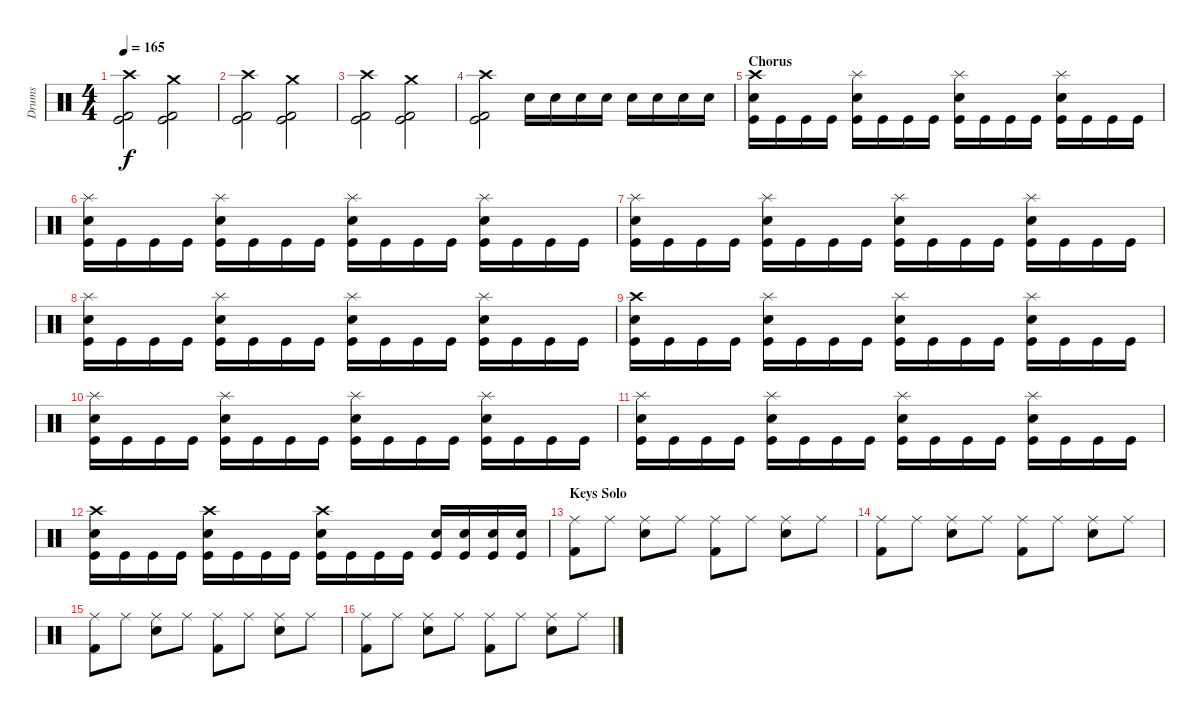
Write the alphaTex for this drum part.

\track ("Drums" "Drums") {instrument percussion}
\staff {score}
\articulation defaults
\ts (4 4)
\tempo 165
\clef neutral
\ks c
("Crash high (hit)" "Kick (hit)" "Kick (hit) 2").2{dy f} ("Crash medium (hit)" "Kick (hit)" "Kick (hit) 2").2 |
("Crash high (hit)" "Kick (hit)" "Kick (hit) 2").2 ("Crash medium (hit)" "Kick (hit)" "Kick (hit) 2").2 |
("Crash high (hit)" "Kick (hit)" "Kick (hit) 2").2 ("Crash medium (hit)" "Kick (hit)" "Kick (hit) 2").2 |
("Crash high (hit)" "Kick (hit)" "Kick (hit) 2").2 "Electric Snare (hit)".16{volume 10} "Electric Snare (hit)".16{volume 11} "Electric Snare (hit)".16{volume 13} "Electric Snare (hit)".16{volume 14} "Electric Snare (hit)".16 "Electric Snare (hit)".16 "Electric Snare (hit)".16 "Electric Snare (hit)".16 |
\section ("" "Chorus")
("Crash high (hit)" "Electric Snare (hit)" "Kick (hit)").16 "Kick (hit)".16 "Kick (hit)".16 "Kick (hit)".16 ("Splash (hit)" "Electric Snare (hit)" "Kick (hit)").16 "Kick (hit)".16 "Kick (hit)".16 "Kick (hit)".16 ("Splash (hit)" "Electric Snare (hit)" "Kick (hit)").16 "Kick (hit)".16 "Kick (hit)".16 "Kick (hit)".16 ("Splash (hit)" "Electric Snare (hit)" "Kick (hit)").16 "Kick (hit)".16 "Kick (hit)".16 "Kick (hit)".16 |
("Splash (hit)" "Electric Snare (hit)" "Kick (hit)").16 "Kick (hit)".16 "Kick (hit)".16 "Kick (hit)".16 ("Splash (hit)" "Electric Snare (hit)" "Kick (hit)").16 "Kick (hit)".16 "Kick (hit)".16 "Kick (hit)".16 ("Splash (hit)" "Electric Snare (hit)" "Kick (hit)").16 "Kick (hit)".16 "Kick (hit)".16 "Kick (hit)".16 ("Splash (hit)" "Electric Snare (hit)" "Kick (hit)").16 "Kick (hit)".16 "Kick (hit)".16 "Kick (hit)".16 |
("Splash (hit)" "Electric Snare (hit)" "Kick (hit)").16 "Kick (hit)".16 "Kick (hit)".16 "Kick (hit)".16 ("Splash (hit)" "Electric Snare (hit)" "Kick (hit)").16 "Kick (hit)".16 "Kick (hit)".16 "Kick (hit)".16 ("Splash (hit)" "Electric Snare (hit)" "Kick (hit)").16 "Kick (hit)".16 "Kick (hit)".16 "Kick (hit)".16 ("Splash (hit)" "Electric Snare (hit)" "Kick (hit)").16 "Kick (hit)".16 "Kick (hit)".16 "Kick (hit)".16 |
("Splash (hit)" "Electric Snare (hit)" "Kick (hit)").16 "Kick (hit)".16 "Kick (hit)".16 "Kick (hit)".16 ("Splash (hit)" "Electric Snare (hit)" "Kick (hit)").16 "Kick (hit)".16 "Kick (hit)".16 "Kick (hit)".16 ("Splash (hit)" "Electric Snare (hit)" "Kick (hit)").16 "Kick (hit)".16 "Kick (hit)".16 "Kick (hit)".16 ("Splash (hit)" "Electric Snare (hit)" "Kick (hit)").16 "Kick (hit)".16 "Kick (hit)".16 "Kick (hit)".16 |
("Crash high (hit)" "Electric Snare (hit)" "Kick (hit)").16 "Kick (hit)".16 "Kick (hit)".16 "Kick (hit)".16 ("Splash (hit)" "Electric Snare (hit)" "Kick (hit)").16 "Kick (hit)".16 "Kick (hit)".16 "Kick (hit)".16 ("Splash (hit)" "Electric Snare (hit)" "Kick (hit)").16 "Kick (hit)".16 "Kick (hit)".16 "Kick (hit)".16 ("Splash (hit)" "Electric Snare (hit)" "Kick (hit)").16 "Kick (hit)".16 "Kick (hit)".16 "Kick (hit)".16 |
("Splash (hit)" "Electric Snare (hit)" "Kick (hit)").16 "Kick (hit)".16 "Kick (hit)".16 "Kick (hit)".16 ("Splash (hit)" "Electric Snare (hit)" "Kick (hit)").16 "Kick (hit)".16 "Kick (hit)".16 "Kick (hit)".16 ("Splash (hit)" "Electric Snare (hit)" "Kick (hit)").16 "Kick (hit)".16 "Kick (hit)".16 "Kick (hit)".16 ("Splash (hit)" "Electric Snare (hit)" "Kick (hit)").16 "Kick (hit)".16 "Kick (hit)".16 "Kick (hit)".16 |
("Splash (hit)" "Electric Snare (hit)" "Kick (hit)").16 "Kick (hit)".16 "Kick (hit)".16 "Kick (hit)".16 ("Splash (hit)" "Electric Snare (hit)" "Kick (hit)").16 "Kick (hit)".16 "Kick (hit)".16 "Kick (hit)".16 ("Splash (hit)" "Electric Snare (hit)" "Kick (hit)").16 "Kick (hit)".16 "Kick (hit)".16 "Kick (hit)".16 ("Splash (hit)" "Electric Snare (hit)" "Kick (hit)").16 "Kick (hit)".16 "Kick (hit)".16 "Kick (hit)".16 |
("Crash high (hit)" "Electric Snare (hit)" "Kick (hit)").16 "Kick (hit)".16 "Kick (hit)".16 "Kick (hit)".16 ("Crash high (hit)" "Electric Snare (hit)" "Kick (hit)").16 "Kick (hit)".16 "Kick (hit)".16 "Kick (hit)".16 ("Crash high (hit)" "Electric Snare (hit)" "Kick (hit)").16 "Kick (hit)".16 "Kick (hit)".16 "Kick (hit)".16 ("Electric Snare (hit)" "Kick (hit)").16 ("Electric Snare (hit)" "Kick (hit)").16 ("Electric Snare (hit)" "Kick (hit)").16 ("Electric Snare (hit)" "Kick (hit)").16 |
\section ("" "Keys Solo")
("Ride (middle)" "Kick (hit) 2").8 "Ride (middle)".8 ("Ride (middle)" "Electric Snare (hit)").8 "Ride (middle)".8 ("Ride (middle)" "Kick (hit) 2").8 "Ride (middle)".8 ("Ride (middle)" "Electric Snare (hit)").8 "Ride (middle)".8 |
("Ride (middle)" "Kick (hit) 2").8 "Ride (middle)".8 ("Ride (middle)" "Electric Snare (hit)").8 "Ride (middle)".8 ("Ride (middle)" "Kick (hit) 2").8 "Ride (middle)".8 ("Ride (middle)" "Electric Snare (hit)").8 "Ride (middle)".8 |
("Ride (middle)" "Kick (hit) 2").8 "Ride (middle)".8 ("Ride (middle)" "Electric Snare (hit)").8 "Ride (middle)".8 ("Ride (middle)" "Kick (hit) 2").8 "Ride (middle)".8 ("Ride (middle)" "Electric Snare (hit)").8 "Ride (middle)".8 |
("Ride (middle)" "Kick (hit) 2").8 "Ride (middle)".8 ("Ride (middle)" "Electric Snare (hit)").8 "Ride (middle)".8 ("Ride (middle)" "Kick (hit) 2").8 "Ride (middle)".8 ("Ride (middle)" "Electric Snare (hit)").8 "Ride (middle)".8
